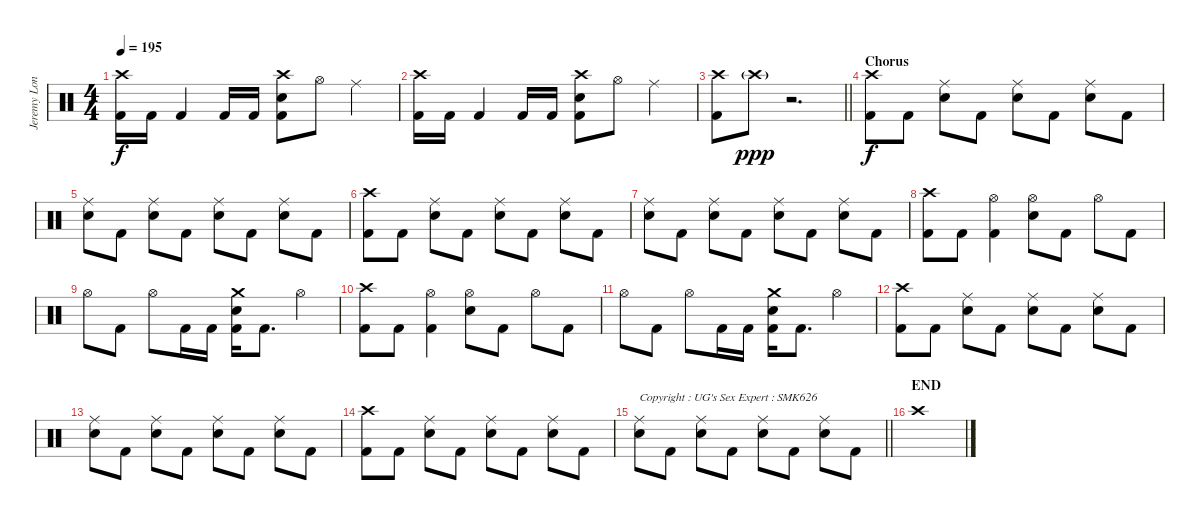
\track ("Jeremy London" "Jeremy Lon") {instrument percussion}
\staff {score}
\articulation defaults
\ts (4 4)
\tempo 195
\clef neutral
\ks c
("Crash high (hit)" "Kick (hit) 2").16{dy f} "Kick (hit) 2".16 "Kick (hit) 2".4 "Kick (hit) 2".16 "Kick (hit) 2".16 ("Crash high (hit)" "Electric Snare (hit)" "Kick (hit) 2").8 "Hi-Hat (open)".8 "Ride (middle)".4 |
("Crash high (hit)" "Kick (hit) 2").16 "Kick (hit) 2".16 "Kick (hit) 2".4 "Kick (hit) 2".16 "Kick (hit) 2".16 ("Crash high (hit)" "Electric Snare (hit)" "Kick (hit) 2").8 "Hi-Hat (open)".8 "Ride (middle)".4 |
\barLineRight lightlight
("Crash high (hit)" "Kick (hit) 2").8 "Crash high (hit)"{g}.8{dy ppp} r.2{d} |
\section ("" "Chorus")
("Crash high (hit)" "Kick (hit) 2").8{dy f} "Kick (hit) 2".8 ("Ride (middle)" "Electric Snare (hit)").8 "Kick (hit) 2".8 ("Ride (middle)" "Electric Snare (hit)").8 "Kick (hit) 2".8 ("Ride (middle)" "Electric Snare (hit)").8 "Kick (hit) 2".8 |
("Ride (middle)" "Electric Snare (hit)").8 "Kick (hit) 2".8 ("Ride (middle)" "Electric Snare (hit)").8 "Kick (hit) 2".8 ("Ride (middle)" "Electric Snare (hit)").8 "Kick (hit) 2".8 ("Ride (middle)" "Electric Snare (hit)").8 "Kick (hit) 2".8 |
("Crash high (hit)" "Kick (hit) 2").8 "Kick (hit) 2".8 ("Ride (middle)" "Electric Snare (hit)").8 "Kick (hit) 2".8 ("Ride (middle)" "Electric Snare (hit)").8 "Kick (hit) 2".8 ("Ride (middle)" "Electric Snare (hit)").8 "Kick (hit) 2".8 |
("Ride (middle)" "Electric Snare (hit)").8 "Kick (hit) 2".8 ("Ride (middle)" "Electric Snare (hit)").8 "Kick (hit) 2".8 ("Ride (middle)" "Electric Snare (hit)").8 "Kick (hit) 2".8 ("Ride (middle)" "Electric Snare (hit)").8 "Kick (hit) 2".8 |
("Crash high (hit)" "Kick (hit) 2").8 "Kick (hit) 2".8 ("Hi-Hat (open)" "Kick (hit) 2").4 ("Hi-Hat (open)" "Electric Snare (hit)").8 "Kick (hit) 2".8 "Hi-Hat (open)".8 "Kick (hit) 2".8 |
"Hi-Hat (open)".8 "Kick (hit) 2".8 "Hi-Hat (open)".8 "Kick (hit) 2".16 "Kick (hit) 2".16 ("Crash medium (hit)" "Electric Snare (hit)" "Kick (hit) 2").16 "Kick (hit) 2".8{d} "Hi-Hat (open)".4 |
("Crash high (hit)" "Kick (hit) 2").8 "Kick (hit) 2".8 ("Hi-Hat (open)" "Kick (hit) 2").4 ("Hi-Hat (open)" "Electric Snare (hit)").8 "Kick (hit) 2".8 "Hi-Hat (open)".8 "Kick (hit) 2".8 |
"Hi-Hat (open)".8 "Kick (hit) 2".8 "Hi-Hat (open)".8 "Kick (hit) 2".16 "Kick (hit) 2".16 ("Crash medium (hit)" "Electric Snare (hit)" "Kick (hit) 2").16 "Kick (hit) 2".8{d} "Hi-Hat (open)".4 |
("Crash high (hit)" "Kick (hit) 2").8 "Kick (hit) 2".8 ("Ride (middle)" "Electric Snare (hit)").8 "Kick (hit) 2".8 ("Ride (middle)" "Electric Snare (hit)").8 "Kick (hit) 2".8 ("Ride (middle)" "Electric Snare (hit)").8 "Kick (hit) 2".8 |
("Ride (middle)" "Electric Snare (hit)").8 "Kick (hit) 2".8 ("Ride (middle)" "Electric Snare (hit)").8 "Kick (hit) 2".8 ("Ride (middle)" "Electric Snare (hit)").8 "Kick (hit) 2".8 ("Ride (middle)" "Electric Snare (hit)").8 "Kick (hit) 2".8 |
("Crash high (hit)" "Kick (hit) 2").8 "Kick (hit) 2".8 ("Ride (middle)" "Electric Snare (hit)").8 "Kick (hit) 2".8 ("Ride (middle)" "Electric Snare (hit)").8 "Kick (hit) 2".8 ("Ride (middle)" "Electric Snare (hit)").8 "Kick (hit) 2".8 |
\barLineRight lightlight
("Ride (middle)" "Electric Snare (hit)").8{txt "Copyright : UG's Sex Expert : SMK626"} "Kick (hit) 2".8 ("Ride (middle)" "Electric Snare (hit)").8 "Kick (hit) 2".8 ("Ride (middle)" "Electric Snare (hit)").8 "Kick (hit) 2".8 ("Ride (middle)" "Electric Snare (hit)").8 "Kick (hit) 2".8 |
\section ("" "END")
"Crash high (hit)".1
